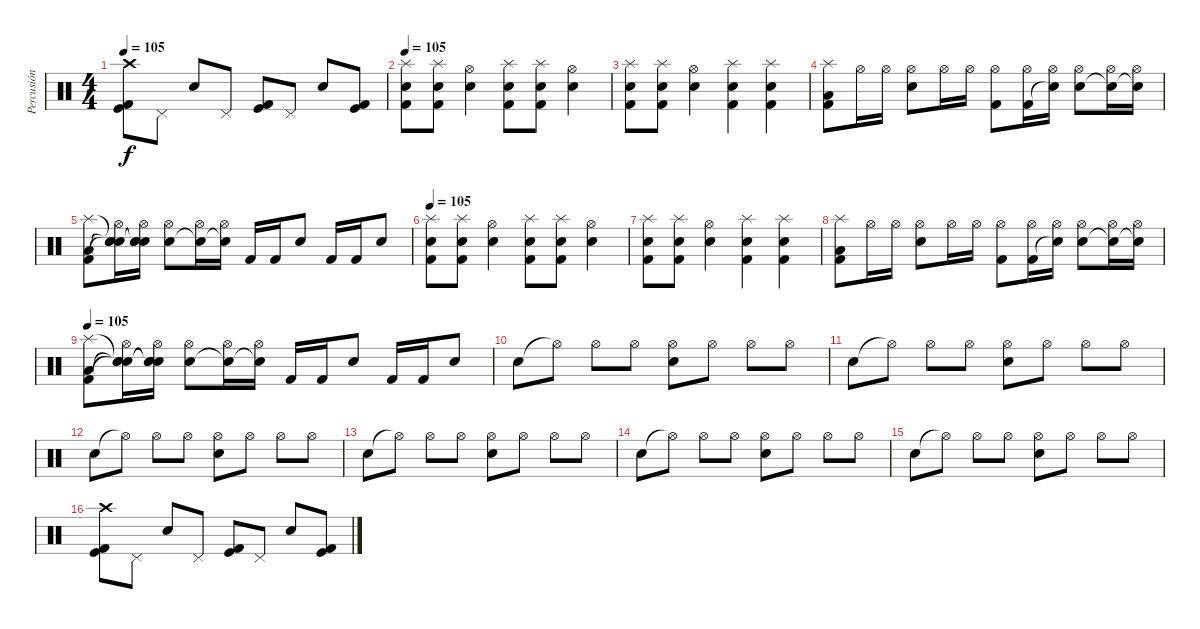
\track ("Percusión" "Percusión") {instrument percussion}
\staff {score}
\articulation defaults
\ts (4 4)
\tempo 105
\clef neutral
\ks c
("Kick (hit) 2" "Kick (hit)" "Crash high (hit)").8{dy f} "Pedal Hi-Hat (hit)".8 "Electric Snare (hit)".8 "Pedal Hi-Hat (hit)".8 ("Kick (hit) 2" "Kick (hit)").8 "Pedal Hi-Hat (hit)".8 "Electric Snare (hit)".8 ("Kick (hit) 2" "Kick (hit)").8 |
\tempo 105
("Splash (hit)" "Kick (hit) 2" "Electric Snare (hit)").8 ("Splash (hit)" "Kick (hit) 2" "Electric Snare (hit)").8 ("Electric Snare (hit)" "Hi-Hat (open)").4 ("Splash (hit)" "Kick (hit) 2" "Electric Snare (hit)").8 ("Splash (hit)" "Kick (hit) 2" "Electric Snare (hit)").8 ("Electric Snare (hit)" "Hi-Hat (open)").4 |
("Splash (hit)" "Kick (hit) 2" "Electric Snare (hit)").8 ("Splash (hit)" "Kick (hit) 2" "Electric Snare (hit)").8 ("Electric Snare (hit)" "Hi-Hat (open)").4 ("Splash (hit)" "Kick (hit) 2" "Electric Snare (hit)").4 ("Splash (hit)" "Kick (hit) 2" "Electric Snare (hit)").4 |
("Kick (hit) 2" "Low Tom (hit)" "Splash (hit)").8 "Hi-Hat (open)".16 "Hi-Hat (open)".16 ("Electric Snare (hit)" "Hi-Hat (open)").8 "Hi-Hat (open)".16 "Hi-Hat (open)".16 ("Kick (hit) 2" "Hi-Hat (open)").8 ("Kick (hit) 2" "Hi-Hat (open)").16 ("Snare (hit)"{t} "Hi-Hat (open)").16 ("Electric Snare (hit)" "Hi-Hat (open)").8 ("Snare (hit)"{t} "Hi-Hat (open)").16 ("Snare (hit)"{t} "Hi-Hat (open)").16 |
("Kick (hit) 2" "Low Tom (hit)" "Splash (hit)").8 ("Snare (hit)"{t} "Snare (hit)"{t} "Snare (hit)"{t} "Hi-Hat (open)").16 ("Snare (hit)"{t} "Snare (hit)"{t} "Snare (hit)"{t} "Hi-Hat (open)").16 ("Electric Snare (hit)" "Hi-Hat (open)").8 ("Snare (hit)"{t} "Hi-Hat (open)").16 ("Snare (hit)"{t} "Hi-Hat (open)").16 "Kick (hit) 2".16 "Kick (hit) 2".16 "Electric Snare (hit)".8 "Kick (hit) 2".16 "Kick (hit) 2".16 "Electric Snare (hit)".8 |
\tempo 105
("Splash (hit)" "Kick (hit) 2" "Electric Snare (hit)").8 ("Splash (hit)" "Kick (hit) 2" "Electric Snare (hit)").8 ("Electric Snare (hit)" "Hi-Hat (open)").4 ("Splash (hit)" "Kick (hit) 2" "Electric Snare (hit)").8 ("Splash (hit)" "Kick (hit) 2" "Electric Snare (hit)").8 ("Electric Snare (hit)" "Hi-Hat (open)").4 |
("Splash (hit)" "Kick (hit) 2" "Electric Snare (hit)").8 ("Splash (hit)" "Kick (hit) 2" "Electric Snare (hit)").8 ("Electric Snare (hit)" "Hi-Hat (open)").4 ("Splash (hit)" "Kick (hit) 2" "Electric Snare (hit)").4 ("Splash (hit)" "Kick (hit) 2" "Electric Snare (hit)").4 |
("Kick (hit) 2" "Low Tom (hit)" "Splash (hit)").8 "Hi-Hat (open)".16 "Hi-Hat (open)".16 ("Electric Snare (hit)" "Hi-Hat (open)").8 "Hi-Hat (open)".16 "Hi-Hat (open)".16 ("Kick (hit) 2" "Hi-Hat (open)").8 ("Kick (hit) 2" "Hi-Hat (open)").16 ("Snare (hit)"{t} "Hi-Hat (open)").16 ("Electric Snare (hit)" "Hi-Hat (open)").8 ("Snare (hit)"{t} "Hi-Hat (open)").16 ("Snare (hit)"{t} "Hi-Hat (open)").16 |
\tempo 105
("Kick (hit) 2" "Low Tom (hit)" "Splash (hit)").8 ("Snare (hit)"{t} "Snare (hit)"{t} "Snare (hit)"{t} "Hi-Hat (open)").16 ("Snare (hit)"{t} "Snare (hit)"{t} "Snare (hit)"{t} "Hi-Hat (open)").16 ("Electric Snare (hit)" "Hi-Hat (open)").8 ("Snare (hit)"{t} "Hi-Hat (open)").16 ("Snare (hit)"{t} "Hi-Hat (open)").16 "Kick (hit) 2".16 "Kick (hit) 2".16 "Electric Snare (hit)".8 "Kick (hit) 2".16 "Kick (hit) 2".16 "Electric Snare (hit)".8 |
"Electric Snare (hit)".8 "Hi-Hat (open)"{t}.8 "Hi-Hat (open)".8 "Hi-Hat (open)".8 ("Electric Snare (hit)" "Hi-Hat (open)").8 "Hi-Hat (open)".8 "Hi-Hat (open)".8 "Hi-Hat (open)".8 |
"Electric Snare (hit)".8 "Hi-Hat (open)"{t}.8 "Hi-Hat (open)".8 "Hi-Hat (open)".8 ("Electric Snare (hit)" "Hi-Hat (open)").8 "Hi-Hat (open)".8 "Hi-Hat (open)".8 "Hi-Hat (open)".8 |
"Electric Snare (hit)".8 "Hi-Hat (open)"{t}.8 "Hi-Hat (open)".8 "Hi-Hat (open)".8 ("Electric Snare (hit)" "Hi-Hat (open)").8 "Hi-Hat (open)".8 "Hi-Hat (open)".8 "Hi-Hat (open)".8 |
"Electric Snare (hit)".8 "Hi-Hat (open)"{t}.8 "Hi-Hat (open)".8 "Hi-Hat (open)".8 ("Electric Snare (hit)" "Hi-Hat (open)").8 "Hi-Hat (open)".8 "Hi-Hat (open)".8 "Hi-Hat (open)".8 |
"Electric Snare (hit)".8 "Hi-Hat (open)"{t}.8 "Hi-Hat (open)".8 "Hi-Hat (open)".8 ("Electric Snare (hit)" "Hi-Hat (open)").8 "Hi-Hat (open)".8 "Hi-Hat (open)".8 "Hi-Hat (open)".8 |
"Electric Snare (hit)".8 "Hi-Hat (open)"{t}.8 "Hi-Hat (open)".8 "Hi-Hat (open)".8 ("Electric Snare (hit)" "Hi-Hat (open)").8 "Hi-Hat (open)".8 "Hi-Hat (open)".8 "Hi-Hat (open)".8 |
("Kick (hit) 2" "Kick (hit)" "Crash high (hit)").8 "Pedal Hi-Hat (hit)".8 "Electric Snare (hit)".8 "Pedal Hi-Hat (hit)".8 ("Kick (hit) 2" "Kick (hit)").8 "Pedal Hi-Hat (hit)".8 "Electric Snare (hit)".8 ("Kick (hit) 2" "Kick (hit)").8
